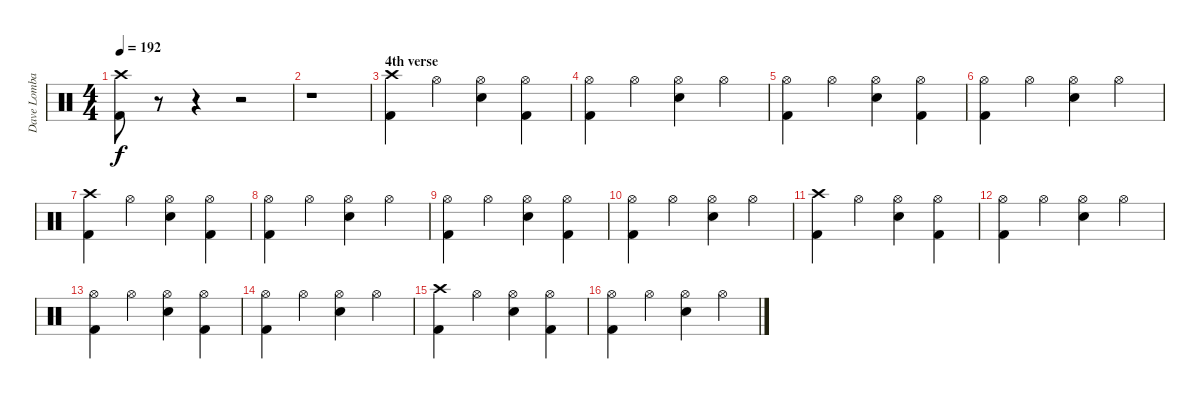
\track ("Dave Lombardo" "Dave Lomba") {instrument percussion}
\staff {score}
\articulation defaults
\ts (4 4)
\tempo 192
\clef neutral
\ks c
("Crash high (hit)" "Kick (hit) 2").8{dy f} r.8 r.4 r.2 |
r.1 |
\section ("" "4th verse")
("Crash high (hit)" "Kick (hit) 2").4 "Hi-Hat (open)".4 ("Hi-Hat (open)" "Electric Snare (hit)").4 ("Hi-Hat (open)" "Kick (hit) 2").4 |
("Hi-Hat (open)" "Kick (hit) 2").4 "Hi-Hat (open)".4 ("Hi-Hat (open)" "Electric Snare (hit)").4 "Hi-Hat (open)".4 |
("Hi-Hat (open)" "Kick (hit) 2").4 "Hi-Hat (open)".4 ("Hi-Hat (open)" "Electric Snare (hit)").4 ("Hi-Hat (open)" "Kick (hit) 2").4 |
("Hi-Hat (open)" "Kick (hit) 2").4 "Hi-Hat (open)".4 ("Hi-Hat (open)" "Electric Snare (hit)").4 "Hi-Hat (open)".4 |
("Crash high (hit)" "Kick (hit) 2").4 "Hi-Hat (open)".4 ("Hi-Hat (open)" "Electric Snare (hit)").4 ("Hi-Hat (open)" "Kick (hit) 2").4 |
("Hi-Hat (open)" "Kick (hit) 2").4 "Hi-Hat (open)".4 ("Hi-Hat (open)" "Electric Snare (hit)").4 "Hi-Hat (open)".4 |
("Hi-Hat (open)" "Kick (hit) 2").4 "Hi-Hat (open)".4 ("Hi-Hat (open)" "Electric Snare (hit)").4 ("Hi-Hat (open)" "Kick (hit) 2").4 |
("Hi-Hat (open)" "Kick (hit) 2").4 "Hi-Hat (open)".4 ("Hi-Hat (open)" "Electric Snare (hit)").4 "Hi-Hat (open)".4 |
("Crash high (hit)" "Kick (hit) 2").4 "Hi-Hat (open)".4 ("Hi-Hat (open)" "Electric Snare (hit)").4 ("Hi-Hat (open)" "Kick (hit) 2").4 |
("Hi-Hat (open)" "Kick (hit) 2").4 "Hi-Hat (open)".4 ("Hi-Hat (open)" "Electric Snare (hit)").4 "Hi-Hat (open)".4 |
("Hi-Hat (open)" "Kick (hit) 2").4 "Hi-Hat (open)".4 ("Hi-Hat (open)" "Electric Snare (hit)").4 ("Hi-Hat (open)" "Kick (hit) 2").4 |
("Hi-Hat (open)" "Kick (hit) 2").4 "Hi-Hat (open)".4 ("Hi-Hat (open)" "Electric Snare (hit)").4 "Hi-Hat (open)".4 |
("Crash high (hit)" "Kick (hit) 2").4 "Hi-Hat (open)".4 ("Hi-Hat (open)" "Electric Snare (hit)").4 ("Hi-Hat (open)" "Kick (hit) 2").4 |
("Hi-Hat (open)" "Kick (hit) 2").4 "Hi-Hat (open)".4 ("Hi-Hat (open)" "Electric Snare (hit)").4 "Hi-Hat (open)".4
